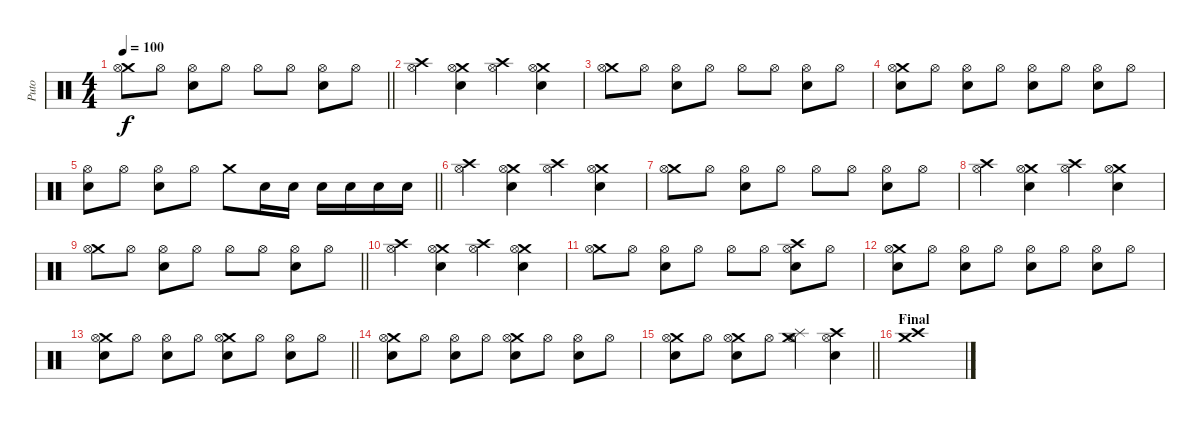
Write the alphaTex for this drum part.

\track ("Puto" "Puto") {instrument percussion}
\staff {score}
\articulation defaults
\ts (4 4)
\tempo 100
\clef neutral
\barLineRight lightlight
\ks c
("Crash medium (hit)" "Hi-Hat (open)").8{dy f} "Hi-Hat (open)".8 ("Snare (hit) 2" "Hi-Hat (open)").8 "Hi-Hat (open)".8 "Hi-Hat (open)".8 "Hi-Hat (open)".8 ("Snare (hit) 2" "Hi-Hat (open)").8 "Hi-Hat (open)".8 |
("Crash high (hit)" "Hi-Hat (open)").4 ("Crash medium (hit)" "Snare (hit) 2" "Hi-Hat (open)").4 ("Crash high (hit)" "Hi-Hat (open)").4 ("Crash medium (hit)" "Snare (hit) 2" "Hi-Hat (open)").4 |
("Crash medium (hit)" "Hi-Hat (open)").8 "Hi-Hat (open)".8 ("Snare (hit) 2" "Hi-Hat (open)").8 "Hi-Hat (open)".8 "Hi-Hat (open)".8 "Hi-Hat (open)".8 ("Snare (hit) 2" "Hi-Hat (open)").8 "Hi-Hat (open)".8 |
("Crash medium (hit)" "Snare (hit) 2" "Hi-Hat (open)").8 "Hi-Hat (open)".8 ("Snare (hit) 2" "Hi-Hat (open)").8 "Hi-Hat (open)".8 ("Snare (hit) 2" "Hi-Hat (open)").8 "Hi-Hat (open)".8 ("Snare (hit) 2" "Hi-Hat (open)").8 "Hi-Hat (open)".8 |
\barLineRight lightlight
("Snare (hit) 2" "Hi-Hat (open)").8 "Hi-Hat (open)".8 ("Snare (hit) 2" "Hi-Hat (open)").8 "Hi-Hat (open)".8 "Crash medium (hit)".8 "Snare (hit) 2".16 "Snare (hit) 2".16 "Snare (hit) 2".16 "Snare (hit) 2".16 "Snare (hit) 2".16 "Snare (hit) 2".16 |
("Crash high (hit)" "Hi-Hat (open)").4 ("Crash medium (hit)" "Snare (hit) 2" "Hi-Hat (open)").4 ("Crash high (hit)" "Hi-Hat (open)").4 ("Crash medium (hit)" "Snare (hit) 2" "Hi-Hat (open)").4 |
("Crash medium (hit)" "Hi-Hat (open)").8 "Hi-Hat (open)".8 ("Snare (hit) 2" "Hi-Hat (open)").8 "Hi-Hat (open)".8 "Hi-Hat (open)".8 "Hi-Hat (open)".8 ("Snare (hit) 2" "Hi-Hat (open)").8 "Hi-Hat (open)".8 |
("Crash high (hit)" "Hi-Hat (open)").4 ("Crash medium (hit)" "Snare (hit) 2" "Hi-Hat (open)").4 ("Crash high (hit)" "Hi-Hat (open)").4 ("Crash medium (hit)" "Snare (hit) 2" "Hi-Hat (open)").4 |
\barLineRight lightlight
("Crash medium (hit)" "Hi-Hat (open)").8 "Hi-Hat (open)".8 ("Snare (hit) 2" "Hi-Hat (open)").8 "Hi-Hat (open)".8 "Hi-Hat (open)".8 "Hi-Hat (open)".8 ("Snare (hit) 2" "Hi-Hat (open)").8 "Hi-Hat (open)".8 |
("Crash high (hit)" "Hi-Hat (open)").4 ("Crash medium (hit)" "Snare (hit) 2" "Hi-Hat (open)").4 ("Crash high (hit)" "Hi-Hat (open)").4 ("Crash medium (hit)" "Snare (hit) 2" "Hi-Hat (open)").4 |
("Crash medium (hit)" "Hi-Hat (open)").8 "Hi-Hat (open)".8 ("Snare (hit) 2" "Hi-Hat (open)").8 "Hi-Hat (open)".8 "Hi-Hat (open)".8 "Hi-Hat (open)".8 ("Crash high (hit)" "Snare (hit) 2" "Hi-Hat (open)").8 "Hi-Hat (open)".8 |
("Crash medium (hit)" "Snare (hit) 2" "Hi-Hat (open)").8 "Hi-Hat (open)".8 ("Snare (hit) 2" "Hi-Hat (open)").8 "Hi-Hat (open)".8 ("Snare (hit) 2" "Hi-Hat (open)").8 "Hi-Hat (open)".8 ("Snare (hit) 2" "Hi-Hat (open)").8 "Hi-Hat (open)".8 |
\barLineRight lightlight
("Crash medium (hit)" "Snare (hit) 2" "Hi-Hat (open)").8 "Hi-Hat (open)".8 ("Snare (hit) 2" "Hi-Hat (open)").8 "Hi-Hat (open)".8 ("Crash medium (hit)" "Snare (hit) 2" "Hi-Hat (open)").8 "Hi-Hat (open)".8 ("Snare (hit) 2" "Hi-Hat (open)").8 "Hi-Hat (open)".8 |
("Crash medium (hit)" "Snare (hit) 2" "Hi-Hat (open)").8 "Hi-Hat (open)".8 ("Snare (hit) 2" "Hi-Hat (open)").8 "Hi-Hat (open)".8 ("Crash medium (hit)" "Snare (hit) 2" "Hi-Hat (open)").8 "Hi-Hat (open)".8 ("Snare (hit) 2" "Hi-Hat (open)").8 "Hi-Hat (open)".8 |
\barLineRight lightlight
("Crash medium (hit)" "Snare (hit) 2" "Hi-Hat (open)").8 "Hi-Hat (open)".8 ("Crash medium (hit)" "Snare (hit) 2" "Hi-Hat (open)").8 "Hi-Hat (open)".8 ("Splash (hit)" "Crash medium (hit)" "Hi-Hat (open)").4 ("Crash high (hit)" "Snare (hit) 2" "Hi-Hat (open)").4 |
\section ("" "Final")
("Crash high (hit)" "Crash medium (hit)").1
